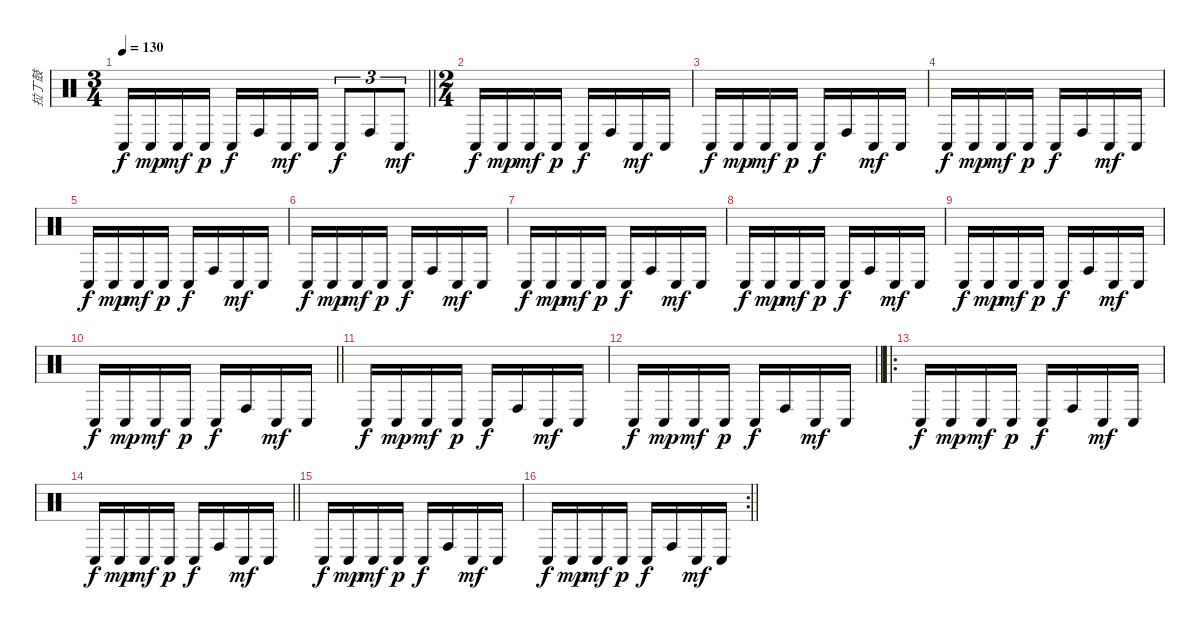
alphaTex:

\track ("拉丁鼓" "拉丁鼓") {instrument percussion}
\staff {score}
\articulation defaults
\ts (3 4)
\tempo 130
\clef neutral
\barLineRight lightlight
\ks c "Conga low (hit)".16{dy f} "Conga low (hit)".16{dy mp} "Conga low (hit)".16{dy mf} "Conga low (hit)".16{dy p} "Conga low (hit)".16{dy f} "Conga high (hit)".16 "Conga low (hit)".16{dy mf} "Conga low (hit)".16 "Conga low (hit)".8{tu (3 2) dy f} "Conga high (hit)".8{tu (3 2)} "Conga low (hit)".8{tu (3 2) dy mf}
|
\ts (2 4)
"Conga low (hit)".16{dy f} "Conga low (hit)".16{dy mp} "Conga low (hit)".16{dy mf} "Conga low (hit)".16{dy p} "Conga low (hit)".16{dy f} "Conga high (hit)".16 "Conga low (hit)".16{dy mf} "Conga low (hit)".16 |
"Conga low (hit)".16{dy f} "Conga low (hit)".16{dy mp} "Conga low (hit)".16{dy mf} "Conga low (hit)".16{dy p} "Conga low (hit)".16{dy f} "Conga high (hit)".16 "Conga low (hit)".16{dy mf} "Conga low (hit)".16 |
"Conga low (hit)".16{dy f} "Conga low (hit)".16{dy mp} "Conga low (hit)".16{dy mf} "Conga low (hit)".16{dy p} "Conga low (hit)".16{dy f} "Conga high (hit)".16 "Conga low (hit)".16{dy mf} "Conga low (hit)".16 |
"Conga low (hit)".16{dy f} "Conga low (hit)".16{dy mp} "Conga low (hit)".16{dy mf} "Conga low (hit)".16{dy p} "Conga low (hit)".16{dy f} "Conga high (hit)".16 "Conga low (hit)".16{dy mf} "Conga low (hit)".16 |
"Conga low (hit)".16{dy f} "Conga low (hit)".16{dy mp} "Conga low (hit)".16{dy mf} "Conga low (hit)".16{dy p} "Conga low (hit)".16{dy f} "Conga high (hit)".16 "Conga low (hit)".16{dy mf} "Conga low (hit)".16 |
"Conga low (hit)".16{dy f} "Conga low (hit)".16{dy mp} "Conga low (hit)".16{dy mf} "Conga low (hit)".16{dy p} "Conga low (hit)".16{dy f} "Conga high (hit)".16 "Conga low (hit)".16{dy mf} "Conga low (hit)".16 |
"Conga low (hit)".16{dy f} "Conga low (hit)".16{dy mp} "Conga low (hit)".16{dy mf} "Conga low (hit)".16{dy p} "Conga low (hit)".16{dy f} "Conga high (hit)".16 "Conga low (hit)".16{dy mf} "Conga low (hit)".16 |
"Conga low (hit)".16{dy f} "Conga low (hit)".16{dy mp} "Conga low (hit)".16{dy mf} "Conga low (hit)".16{dy p} "Conga low (hit)".16{dy f} "Conga high (hit)".16 "Conga low (hit)".16{dy mf} "Conga low (hit)".16 |
\barLineRight lightlight "Conga low (hit)".16{dy f} "Conga low (hit)".16{dy mp} "Conga low (hit)".16{dy mf} "Conga low (hit)".16{dy p} "Conga low (hit)".16{dy f} "Conga high (hit)".16 "Conga low (hit)".16{dy mf} "Conga low (hit)".16
|
"Conga low (hit)".16{dy f} "Conga low (hit)".16{dy mp} "Conga low (hit)".16{dy mf} "Conga low (hit)".16{dy p} "Conga low (hit)".16{dy f} "Conga high (hit)".16 "Conga low (hit)".16{dy mf} "Conga low (hit)".16 |
\barLineRight lightlight "Conga low (hit)".16{dy f} "Conga low (hit)".16{dy mp} "Conga low (hit)".16{dy mf} "Conga low (hit)".16{dy p} "Conga low (hit)".16{dy f} "Conga high (hit)".16 "Conga low (hit)".16{dy mf} "Conga low (hit)".16
|
\ro "Conga low (hit)".16{dy f} "Conga low (hit)".16{dy mp} "Conga low (hit)".16{dy mf} "Conga low (hit)".16{dy p} "Conga low (hit)".16{dy f} "Conga high (hit)".16 "Conga low (hit)".16{dy mf} "Conga low (hit)".16
|
\barLineRight lightlight "Conga low (hit)".16{dy f} "Conga low (hit)".16{dy mp} "Conga low (hit)".16{dy mf} "Conga low (hit)".16{dy p} "Conga low (hit)".16{dy f} "Conga high (hit)".16 "Conga low (hit)".16{dy mf} "Conga low (hit)".16
|
"Conga low (hit)".16{dy f} "Conga low (hit)".16{dy mp} "Conga low (hit)".16{dy mf} "Conga low (hit)".16{dy p} "Conga low (hit)".16{dy f} "Conga high (hit)".16 "Conga low (hit)".16{dy mf} "Conga low (hit)".16 |
\rc 2
\barLineRight lightlight "Conga low (hit)".16{dy f} "Conga low (hit)".16{dy mp} "Conga low (hit)".16{dy mf} "Conga low (hit)".16{dy p} "Conga low (hit)".16{dy f} "Conga high (hit)".16 "Conga low (hit)".16{dy mf} "Conga low (hit)".16
